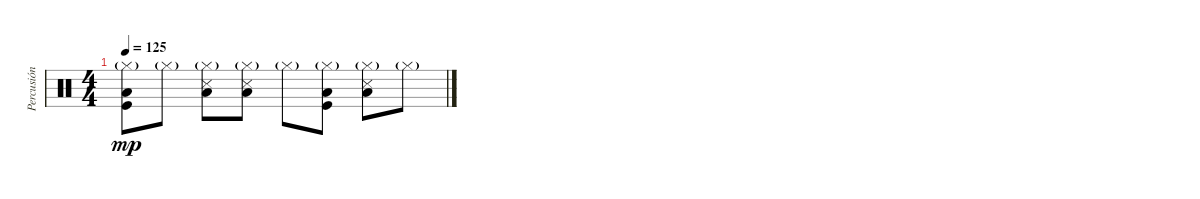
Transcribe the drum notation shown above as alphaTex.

\track ("Percusión" "Percusión") {instrument percussion}
\staff {score}
\articulation defaults
\ts (4 4)
\tempo 125
\clef neutral
\ks c
("Hi-Hat (closed)"{g} "Low Floor Tom (hit)" "Kick (hit)").8{dy mp} "Hi-Hat (closed)"{g}.8 ("Hi-Hat (closed)"{g} "Low Floor Tom (hit)" "Snare (side stick) 3").8 ("Hi-Hat (closed)"{g} "Low Floor Tom (hit)" "Snare (side stick) 3").8 "Hi-Hat (closed)"{g}.8 ("Hi-Hat (closed)"{g} "Low Floor Tom (hit)" "Kick (hit)").8 ("Hi-Hat (closed)"{g} "Low Floor Tom (hit)" "Snare (side stick) 3").8 "Hi-Hat (closed)"{g}.8
